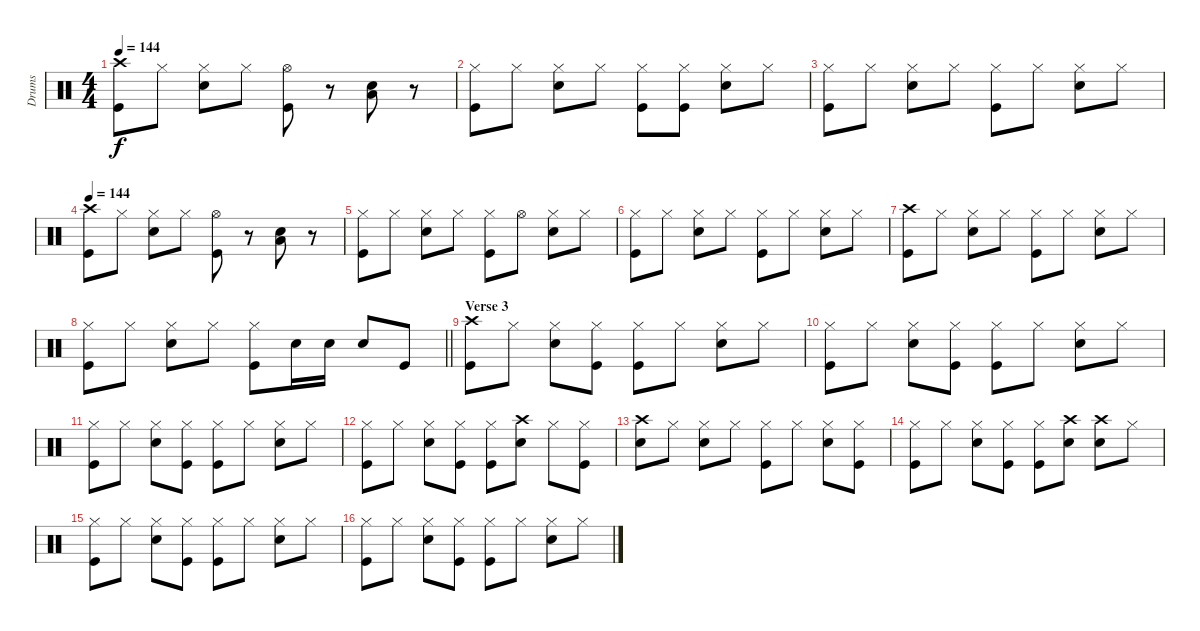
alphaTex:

\track ("Drums" "Drums") {instrument percussion}
\staff {score}
\articulation defaults
\ts (4 4)
\tempo 144
\clef neutral
\ks c
("Crash high (hit)" "Kick (hit)").8{dy f} "Hi-Hat (closed)".8 ("Hi-Hat (closed)" "Snare (hit) 2").8 "Hi-Hat (closed)".8 ("Hi-Hat (open)" "Kick (hit)").8 r.8 ("Snare (hit) 2" "Low Floor Tom (hit)").8 r.8 |
("Hi-Hat (closed)" "Kick (hit)").8 "Hi-Hat (closed)".8 ("Hi-Hat (closed)" "Snare (hit) 2").8 "Hi-Hat (closed)".8 ("Hi-Hat (closed)" "Kick (hit)").8 ("Hi-Hat (closed)" "Kick (hit)").8 ("Hi-Hat (closed)" "Snare (hit) 2").8 "Hi-Hat (closed)".8 |
("Hi-Hat (closed)" "Kick (hit)").8 "Hi-Hat (closed)".8 ("Hi-Hat (closed)" "Snare (hit) 2").8 "Hi-Hat (closed)".8 ("Hi-Hat (closed)" "Kick (hit)").8 "Hi-Hat (closed)".8 ("Hi-Hat (closed)" "Snare (hit) 2").8 "Hi-Hat (closed)".8 |
\tempo 144
("Crash high (hit)" "Kick (hit)").8 "Hi-Hat (closed)".8 ("Hi-Hat (closed)" "Snare (hit) 2").8 "Hi-Hat (closed)".8 ("Hi-Hat (open)" "Kick (hit)").8 r.8 ("Snare (hit) 2" "Low Floor Tom (hit)").8 r.8 |
("Hi-Hat (closed)" "Kick (hit)").8 "Hi-Hat (closed)".8 ("Hi-Hat (closed)" "Snare (hit) 2").8 "Hi-Hat (closed)".8 ("Hi-Hat (closed)" "Kick (hit)").8 "Hi-Hat (open)".8 ("Hi-Hat (closed)" "Snare (hit) 2").8 "Hi-Hat (closed)".8 |
("Hi-Hat (closed)" "Kick (hit)").8 "Hi-Hat (closed)".8 ("Hi-Hat (closed)" "Snare (hit) 2").8 "Hi-Hat (closed)".8 ("Hi-Hat (closed)" "Kick (hit)").8 "Hi-Hat (closed)".8 ("Hi-Hat (closed)" "Snare (hit) 2").8 "Hi-Hat (closed)".8 |
("Crash high (hit)" "Kick (hit)").8 "Hi-Hat (closed)".8 ("Hi-Hat (closed)" "Snare (hit) 2").8 "Hi-Hat (closed)".8 ("Hi-Hat (closed)" "Kick (hit)").8 "Hi-Hat (closed)".8 ("Hi-Hat (closed)" "Snare (hit) 2").8 "Hi-Hat (closed)".8 |
\barLineRight lightlight
("Hi-Hat (closed)" "Kick (hit)").8 "Hi-Hat (closed)".8 ("Hi-Hat (closed)" "Snare (hit) 2").8 "Hi-Hat (closed)".8 ("Hi-Hat (closed)" "Kick (hit)").8 "Snare (hit) 2".16 "Snare (hit) 2".16 "Snare (hit) 2".8 "Kick (hit)".8 |
\section ("" "Verse 3")
("Crash high (hit)" "Kick (hit)").8 "Hi-Hat (closed)".8 ("Hi-Hat (closed)" "Snare (hit) 2").8 ("Hi-Hat (closed)" "Kick (hit)").8 ("Hi-Hat (closed)" "Kick (hit)").8 "Hi-Hat (closed)".8 ("Hi-Hat (closed)" "Snare (hit) 2").8 "Hi-Hat (closed)".8 |
("Hi-Hat (closed)" "Kick (hit)").8 "Hi-Hat (closed)".8 ("Hi-Hat (closed)" "Snare (hit) 2").8 ("Hi-Hat (closed)" "Kick (hit)").8 ("Hi-Hat (closed)" "Kick (hit)").8 "Hi-Hat (closed)".8 ("Hi-Hat (closed)" "Snare (hit) 2").8 "Hi-Hat (closed)".8 |
("Hi-Hat (closed)" "Kick (hit)").8 "Hi-Hat (closed)".8 ("Hi-Hat (closed)" "Snare (hit) 2").8 ("Hi-Hat (closed)" "Kick (hit)").8 ("Hi-Hat (closed)" "Kick (hit)").8 "Hi-Hat (closed)".8 ("Hi-Hat (closed)" "Snare (hit) 2").8 "Hi-Hat (closed)".8 |
("Hi-Hat (closed)" "Kick (hit)").8 "Hi-Hat (closed)".8 ("Hi-Hat (closed)" "Snare (hit) 2").8 ("Hi-Hat (closed)" "Kick (hit)").8 ("Hi-Hat (closed)" "Kick (hit)").8 ("Crash high (hit)" "Snare (hit) 2").8 "Hi-Hat (closed)".8 ("Hi-Hat (closed)" "Kick (hit)").8 |
("Crash high (hit)" "Snare (hit) 2").8 "Hi-Hat (closed)".8 ("Hi-Hat (closed)" "Snare (hit) 2").8 "Hi-Hat (closed)".8 ("Hi-Hat (closed)" "Kick (hit)").8 "Hi-Hat (closed)".8 ("Hi-Hat (closed)" "Snare (hit) 2").8 ("Hi-Hat (closed)" "Kick (hit)").8 |
("Hi-Hat (closed)" "Kick (hit)").8 "Hi-Hat (closed)".8 ("Hi-Hat (closed)" "Snare (hit) 2").8 ("Hi-Hat (closed)" "Kick (hit)").8 ("Hi-Hat (closed)" "Kick (hit)").8 ("Crash high (hit)" "Snare (hit) 2").8 ("Crash high (hit)" "Snare (hit) 2").8 "Hi-Hat (closed)".8 |
("Hi-Hat (closed)" "Kick (hit)").8 "Hi-Hat (closed)".8 ("Hi-Hat (closed)" "Snare (hit) 2").8 ("Hi-Hat (closed)" "Kick (hit)").8 ("Hi-Hat (closed)" "Kick (hit)").8 "Hi-Hat (closed)".8 ("Hi-Hat (closed)" "Snare (hit) 2").8 "Hi-Hat (closed)".8 |
("Hi-Hat (closed)" "Kick (hit)").8 "Hi-Hat (closed)".8 ("Hi-Hat (closed)" "Snare (hit) 2").8 ("Hi-Hat (closed)" "Kick (hit)").8 ("Hi-Hat (closed)" "Kick (hit)").8 "Hi-Hat (closed)".8 ("Hi-Hat (closed)" "Snare (hit) 2").8 "Hi-Hat (closed)".8
